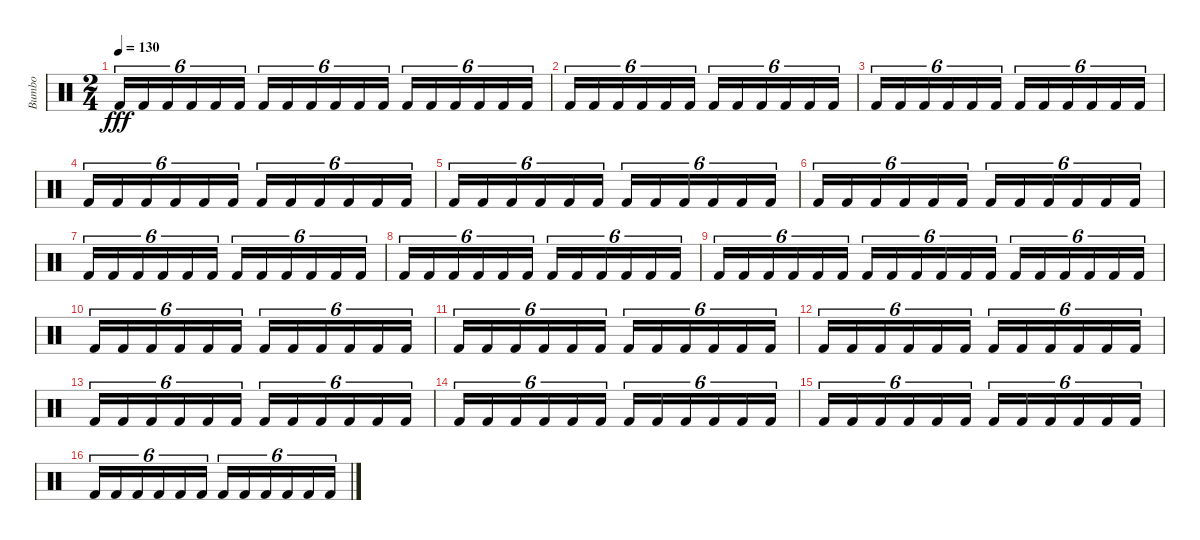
\track ("Bumbo" "Bumbo") {instrument percussion}
\staff {score}
\articulation defaults
\ts (2 4)
\tempo 130
\clef neutral
\ks c "Kick (hit) 2".16{tu (6 4) dy fff} "Kick (hit) 2".16{tu (6 4)} "Kick (hit) 2".16{tu (6 4)} "Kick (hit) 2".16{tu (6 4)} "Kick (hit) 2".16{tu (6 4)} "Kick (hit) 2".16{tu (6 4)} "Kick (hit) 2".16{tu (6 4)} "Kick (hit) 2".16{tu (6 4)} "Kick (hit) 2".16{tu (6 4)} "Kick (hit) 2".16{tu (6 4)} "Kick (hit) 2".16{tu (6 4)} "Kick (hit) 2".16{tu (6 4)} "Kick (hit) 2".16{tu (6 4)} "Kick (hit) 2".16{tu (6 4)} "Kick (hit) 2".16{tu (6 4)} "Kick (hit) 2".16{tu (6 4)} "Kick (hit) 2".16{tu (6 4)} "Kick (hit) 2".16{tu (6 4)}
|
"Kick (hit) 2".16{tu (6 4)} "Kick (hit) 2".16{tu (6 4)} "Kick (hit) 2".16{tu (6 4)} "Kick (hit) 2".16{tu (6 4)} "Kick (hit) 2".16{tu (6 4)} "Kick (hit) 2".16{tu (6 4)} "Kick (hit) 2".16{tu (6 4)} "Kick (hit) 2".16{tu (6 4)} "Kick (hit) 2".16{tu (6 4)} "Kick (hit) 2".16{tu (6 4)} "Kick (hit) 2".16{tu (6 4)} "Kick (hit) 2".16{tu (6 4)} |
"Kick (hit) 2".16{tu (6 4)} "Kick (hit) 2".16{tu (6 4)} "Kick (hit) 2".16{tu (6 4)} "Kick (hit) 2".16{tu (6 4)} "Kick (hit) 2".16{tu (6 4)} "Kick (hit) 2".16{tu (6 4)} "Kick (hit) 2".16{tu (6 4)} "Kick (hit) 2".16{tu (6 4)} "Kick (hit) 2".16{tu (6 4)} "Kick (hit) 2".16{tu (6 4)} "Kick (hit) 2".16{tu (6 4)} "Kick (hit) 2".16{tu (6 4)} |
"Kick (hit) 2".16{tu (6 4)} "Kick (hit) 2".16{tu (6 4)} "Kick (hit) 2".16{tu (6 4)} "Kick (hit) 2".16{tu (6 4)} "Kick (hit) 2".16{tu (6 4)} "Kick (hit) 2".16{tu (6 4)} "Kick (hit) 2".16{tu (6 4)} "Kick (hit) 2".16{tu (6 4)} "Kick (hit) 2".16{tu (6 4)} "Kick (hit) 2".16{tu (6 4)} "Kick (hit) 2".16{tu (6 4)} "Kick (hit) 2".16{tu (6 4)} |
"Kick (hit) 2".16{tu (6 4)} "Kick (hit) 2".16{tu (6 4)} "Kick (hit) 2".16{tu (6 4)} "Kick (hit) 2".16{tu (6 4)} "Kick (hit) 2".16{tu (6 4)} "Kick (hit) 2".16{tu (6 4)} "Kick (hit) 2".16{tu (6 4)} "Kick (hit) 2".16{tu (6 4)} "Kick (hit) 2".16{tu (6 4)} "Kick (hit) 2".16{tu (6 4)} "Kick (hit) 2".16{tu (6 4)} "Kick (hit) 2".16{tu (6 4)} |
"Kick (hit) 2".16{tu (6 4)} "Kick (hit) 2".16{tu (6 4)} "Kick (hit) 2".16{tu (6 4)} "Kick (hit) 2".16{tu (6 4)} "Kick (hit) 2".16{tu (6 4)} "Kick (hit) 2".16{tu (6 4)} "Kick (hit) 2".16{tu (6 4)} "Kick (hit) 2".16{tu (6 4)} "Kick (hit) 2".16{tu (6 4)} "Kick (hit) 2".16{tu (6 4)} "Kick (hit) 2".16{tu (6 4)} "Kick (hit) 2".16{tu (6 4)} |
"Kick (hit) 2".16{tu (6 4)} "Kick (hit) 2".16{tu (6 4)} "Kick (hit) 2".16{tu (6 4)} "Kick (hit) 2".16{tu (6 4)} "Kick (hit) 2".16{tu (6 4)} "Kick (hit) 2".16{tu (6 4)} "Kick (hit) 2".16{tu (6 4)} "Kick (hit) 2".16{tu (6 4)} "Kick (hit) 2".16{tu (6 4)} "Kick (hit) 2".16{tu (6 4)} "Kick (hit) 2".16{tu (6 4)} "Kick (hit) 2".16{tu (6 4)} |
"Kick (hit) 2".16{tu (6 4)} "Kick (hit) 2".16{tu (6 4)} "Kick (hit) 2".16{tu (6 4)} "Kick (hit) 2".16{tu (6 4)} "Kick (hit) 2".16{tu (6 4)} "Kick (hit) 2".16{tu (6 4)} "Kick (hit) 2".16{tu (6 4)} "Kick (hit) 2".16{tu (6 4)} "Kick (hit) 2".16{tu (6 4)} "Kick (hit) 2".16{tu (6 4)} "Kick (hit) 2".16{tu (6 4)} "Kick (hit) 2".16{tu (6 4)} |
"Kick (hit) 2".16{tu (6 4)} "Kick (hit) 2".16{tu (6 4)} "Kick (hit) 2".16{tu (6 4)} "Kick (hit) 2".16{tu (6 4)} "Kick (hit) 2".16{tu (6 4)} "Kick (hit) 2".16{tu (6 4)} "Kick (hit) 2".16{tu (6 4)} "Kick (hit) 2".16{tu (6 4)} "Kick (hit) 2".16{tu (6 4)} "Kick (hit) 2".16{tu (6 4)} "Kick (hit) 2".16{tu (6 4)} "Kick (hit) 2".16{tu (6 4)} "Kick (hit) 2".16{tu (6 4)} "Kick (hit) 2".16{tu (6 4)} "Kick (hit) 2".16{tu (6 4)} "Kick (hit) 2".16{tu (6 4)} "Kick (hit) 2".16{tu (6 4)} "Kick (hit) 2".16{tu (6 4)} |
"Kick (hit) 2".16{tu (6 4)} "Kick (hit) 2".16{tu (6 4)} "Kick (hit) 2".16{tu (6 4)} "Kick (hit) 2".16{tu (6 4)} "Kick (hit) 2".16{tu (6 4)} "Kick (hit) 2".16{tu (6 4)} "Kick (hit) 2".16{tu (6 4)} "Kick (hit) 2".16{tu (6 4)} "Kick (hit) 2".16{tu (6 4)} "Kick (hit) 2".16{tu (6 4)} "Kick (hit) 2".16{tu (6 4)} "Kick (hit) 2".16{tu (6 4)} |
"Kick (hit) 2".16{tu (6 4)} "Kick (hit) 2".16{tu (6 4)} "Kick (hit) 2".16{tu (6 4)} "Kick (hit) 2".16{tu (6 4)} "Kick (hit) 2".16{tu (6 4)} "Kick (hit) 2".16{tu (6 4)} "Kick (hit) 2".16{tu (6 4)} "Kick (hit) 2".16{tu (6 4)} "Kick (hit) 2".16{tu (6 4)} "Kick (hit) 2".16{tu (6 4)} "Kick (hit) 2".16{tu (6 4)} "Kick (hit) 2".16{tu (6 4)} |
"Kick (hit) 2".16{tu (6 4)} "Kick (hit) 2".16{tu (6 4)} "Kick (hit) 2".16{tu (6 4)} "Kick (hit) 2".16{tu (6 4)} "Kick (hit) 2".16{tu (6 4)} "Kick (hit) 2".16{tu (6 4)} "Kick (hit) 2".16{tu (6 4)} "Kick (hit) 2".16{tu (6 4)} "Kick (hit) 2".16{tu (6 4)} "Kick (hit) 2".16{tu (6 4)} "Kick (hit) 2".16{tu (6 4)} "Kick (hit) 2".16{tu (6 4)} |
"Kick (hit) 2".16{tu (6 4)} "Kick (hit) 2".16{tu (6 4)} "Kick (hit) 2".16{tu (6 4)} "Kick (hit) 2".16{tu (6 4)} "Kick (hit) 2".16{tu (6 4)} "Kick (hit) 2".16{tu (6 4)} "Kick (hit) 2".16{tu (6 4)} "Kick (hit) 2".16{tu (6 4)} "Kick (hit) 2".16{tu (6 4)} "Kick (hit) 2".16{tu (6 4)} "Kick (hit) 2".16{tu (6 4)} "Kick (hit) 2".16{tu (6 4)} |
"Kick (hit) 2".16{tu (6 4)} "Kick (hit) 2".16{tu (6 4)} "Kick (hit) 2".16{tu (6 4)} "Kick (hit) 2".16{tu (6 4)} "Kick (hit) 2".16{tu (6 4)} "Kick (hit) 2".16{tu (6 4)} "Kick (hit) 2".16{tu (6 4)} "Kick (hit) 2".16{tu (6 4)} "Kick (hit) 2".16{tu (6 4)} "Kick (hit) 2".16{tu (6 4)} "Kick (hit) 2".16{tu (6 4)} "Kick (hit) 2".16{tu (6 4)} |
"Kick (hit) 2".16{tu (6 4)} "Kick (hit) 2".16{tu (6 4)} "Kick (hit) 2".16{tu (6 4)} "Kick (hit) 2".16{tu (6 4)} "Kick (hit) 2".16{tu (6 4)} "Kick (hit) 2".16{tu (6 4)} "Kick (hit) 2".16{tu (6 4)} "Kick (hit) 2".16{tu (6 4)} "Kick (hit) 2".16{tu (6 4)} "Kick (hit) 2".16{tu (6 4)} "Kick (hit) 2".16{tu (6 4)} "Kick (hit) 2".16{tu (6 4)} |
"Kick (hit) 2".16{tu (6 4)} "Kick (hit) 2".16{tu (6 4)} "Kick (hit) 2".16{tu (6 4)} "Kick (hit) 2".16{tu (6 4)} "Kick (hit) 2".16{tu (6 4)} "Kick (hit) 2".16{tu (6 4)} "Kick (hit) 2".16{tu (6 4)} "Kick (hit) 2".16{tu (6 4)} "Kick (hit) 2".16{tu (6 4)} "Kick (hit) 2".16{tu (6 4)} "Kick (hit) 2".16{tu (6 4)} "Kick (hit) 2".16{tu (6 4)}
